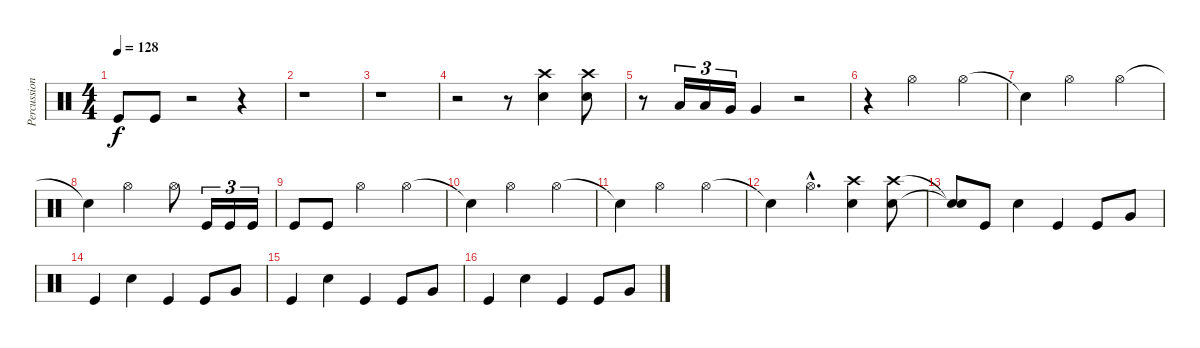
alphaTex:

\track ("Percussion" "Percussion") {instrument percussion}
\staff {score}
\articulation defaults
\ts (4 4)
\tempo 128
\clef neutral
\ks c "Kick (hit)".8{dy f} "Kick (hit)".8
r.2 r.4 |
r.1 |
r.1 |
r.2 r.8 ("Crash high (hit)" "Snare (hit) 2").4 ("Crash high (hit)" "Snare (hit) 2").8 |
r.8 "Low Tom (hit)".16{tu (3 2)} "Low Tom (hit)".16{tu (3 2)} "Very Low Tom (hit)".16{tu (3 2)} "Very Low Tom (hit)".4 r.2 |
r.4 "Hi-Hat (open)".2 "Hi-Hat (open)".4 |
"Snare (hit)"{t}.4 "Hi-Hat (open)".2 "Hi-Hat (open)".4 |
"Snare (hit)"{t}.4 "Hi-Hat (open)".2 "Hi-Hat (open)".8 "Kick (hit)".16{tu (3 2)} "Kick (hit)".16{tu (3 2)} "Kick (hit)".16{tu (3 2)} |
"Kick (hit)".8 "Kick (hit)".8 "Hi-Hat (open)".2 "Hi-Hat (open)".4 |
"Snare (hit)"{t}.4 "Hi-Hat (open)".2 "Hi-Hat (open)".4 |
"Snare (hit)"{t}.4 "Hi-Hat (open)".2 "Hi-Hat (open)".4 |
"Snare (hit)"{t}.4 "Hi-Hat (open)"{hac}.4{d} ("Crash high (hit)" "Snare (hit) 2").4 ("Crash high (hit)" "Snare (hit) 2").8 |
("Snare (hit)"{t} "Snare (hit)"{t}).8 "Kick (hit)".8 "Snare (hit) 2".4 "Kick (hit)".4 "Kick (hit)".8 "Very Low Tom (hit)".8 |
"Kick (hit)".4 "Snare (hit) 2".4 "Kick (hit)".4 "Kick (hit)".8 "Very Low Tom (hit)".8 |
"Kick (hit)".4 "Snare (hit) 2".4 "Kick (hit)".4 "Kick (hit)".8 "Very Low Tom (hit)".8 |
"Kick (hit)".4 "Snare (hit) 2".4 "Kick (hit)".4 "Kick (hit)".8 "Very Low Tom (hit)".8
